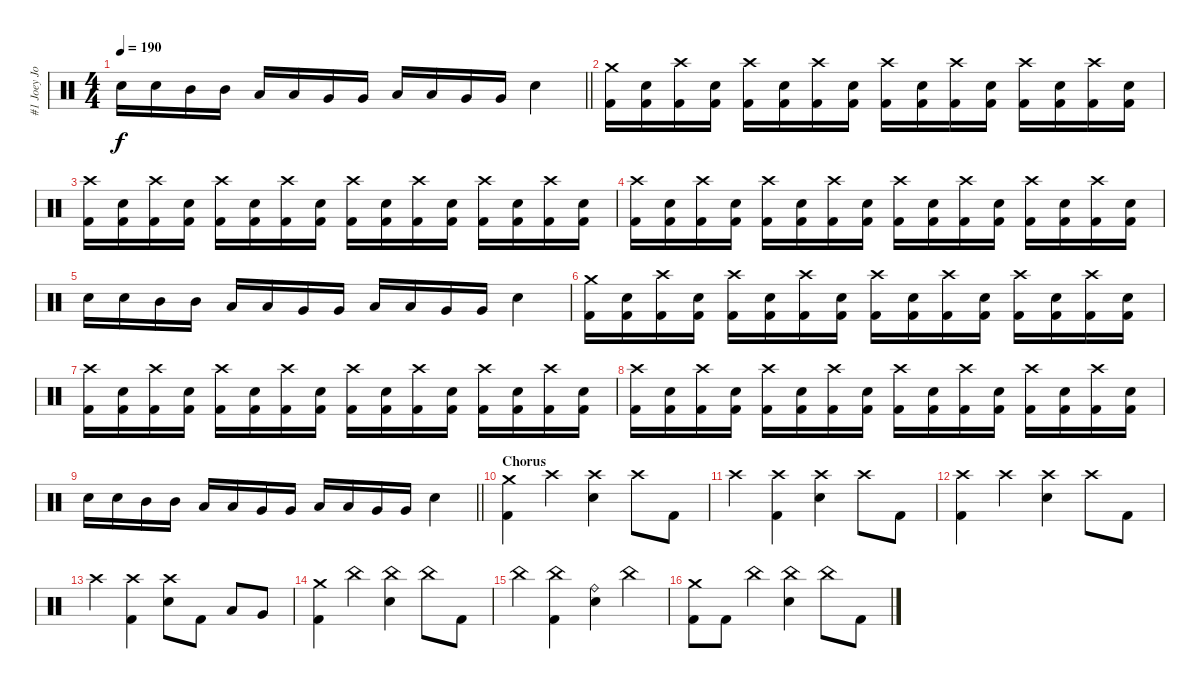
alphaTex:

\track ("#1 Joey Jordison" "#1 Joey Jo") {instrument percussion}
\staff {score}
\articulation defaults
\ts (4 4)
\tempo 190
\clef neutral
\barLineRight lightlight
\ks c "Electric Snare (hit)".16{dy f} "Electric Snare (hit)".16 "Mid Tom (hit)".16 "Mid Tom (hit)".16 "Low Tom (hit)".16 "Low Tom (hit)".16 "Very Low Tom (hit)".16 "Very Low Tom (hit)".16 "Low Floor Tom (hit)".16 "Low Floor Tom (hit)".16 "Very Low Tom (hit)".16 "Very Low Tom (hit)".16 "Electric Snare (hit)".4
|
("Crash medium (hit)" "Kick (hit) 2").16 ("Electric Snare (hit)" "Kick (hit) 2").16 ("Crash high (hit)" "Kick (hit) 2").16 ("Electric Snare (hit)" "Kick (hit) 2").16 ("Crash high (hit)" "Kick (hit) 2").16 ("Electric Snare (hit)" "Kick (hit) 2").16 ("Crash high (hit)" "Kick (hit) 2").16 ("Electric Snare (hit)" "Kick (hit) 2").16 ("Crash high (hit)" "Kick (hit) 2").16 ("Electric Snare (hit)" "Kick (hit) 2").16 ("Crash high (hit)" "Kick (hit) 2").16 ("Electric Snare (hit)" "Kick (hit) 2").16 ("Crash high (hit)" "Kick (hit) 2").16 ("Electric Snare (hit)" "Kick (hit) 2").16 ("Crash high (hit)" "Kick (hit) 2").16 ("Electric Snare (hit)" "Kick (hit) 2").16 |
("Crash high (hit)" "Kick (hit) 2").16 ("Electric Snare (hit)" "Kick (hit) 2").16 ("Crash high (hit)" "Kick (hit) 2").16 ("Electric Snare (hit)" "Kick (hit) 2").16 ("Crash high (hit)" "Kick (hit) 2").16 ("Electric Snare (hit)" "Kick (hit) 2").16 ("Crash high (hit)" "Kick (hit) 2").16 ("Electric Snare (hit)" "Kick (hit) 2").16 ("Crash high (hit)" "Kick (hit) 2").16 ("Electric Snare (hit)" "Kick (hit) 2").16 ("Crash high (hit)" "Kick (hit) 2").16 ("Electric Snare (hit)" "Kick (hit) 2").16 ("Crash high (hit)" "Kick (hit) 2").16 ("Electric Snare (hit)" "Kick (hit) 2").16 ("Crash high (hit)" "Kick (hit) 2").16 ("Electric Snare (hit)" "Kick (hit) 2").16 |
("Crash high (hit)" "Kick (hit) 2").16 ("Electric Snare (hit)" "Kick (hit) 2").16 ("Crash high (hit)" "Kick (hit) 2").16 ("Electric Snare (hit)" "Kick (hit) 2").16 ("Crash high (hit)" "Kick (hit) 2").16 ("Electric Snare (hit)" "Kick (hit) 2").16 ("Crash high (hit)" "Kick (hit) 2").16 ("Electric Snare (hit)" "Kick (hit) 2").16 ("Crash high (hit)" "Kick (hit) 2").16 ("Electric Snare (hit)" "Kick (hit) 2").16 ("Crash high (hit)" "Kick (hit) 2").16 ("Electric Snare (hit)" "Kick (hit) 2").16 ("Crash high (hit)" "Kick (hit) 2").16 ("Electric Snare (hit)" "Kick (hit) 2").16 ("Crash high (hit)" "Kick (hit) 2").16 ("Electric Snare (hit)" "Kick (hit) 2").16 |
"Electric Snare (hit)".16 "Electric Snare (hit)".16 "Mid Tom (hit)".16 "Mid Tom (hit)".16 "Low Tom (hit)".16 "Low Tom (hit)".16 "Very Low Tom (hit)".16 "Very Low Tom (hit)".16 "Low Floor Tom (hit)".16 "Low Floor Tom (hit)".16 "Very Low Tom (hit)".16 "Very Low Tom (hit)".16 "Electric Snare (hit)".4 |
("Crash medium (hit)" "Kick (hit) 2").16 ("Electric Snare (hit)" "Kick (hit) 2").16 ("Crash high (hit)" "Kick (hit) 2").16 ("Electric Snare (hit)" "Kick (hit) 2").16 ("Crash high (hit)" "Kick (hit) 2").16 ("Electric Snare (hit)" "Kick (hit) 2").16 ("Crash high (hit)" "Kick (hit) 2").16 ("Electric Snare (hit)" "Kick (hit) 2").16 ("Crash high (hit)" "Kick (hit) 2").16 ("Electric Snare (hit)" "Kick (hit) 2").16 ("Crash high (hit)" "Kick (hit) 2").16 ("Electric Snare (hit)" "Kick (hit) 2").16 ("Crash high (hit)" "Kick (hit) 2").16 ("Electric Snare (hit)" "Kick (hit) 2").16 ("Crash high (hit)" "Kick (hit) 2").16 ("Electric Snare (hit)" "Kick (hit) 2").16 |
("Crash high (hit)" "Kick (hit) 2").16 ("Electric Snare (hit)" "Kick (hit) 2").16 ("Crash high (hit)" "Kick (hit) 2").16 ("Electric Snare (hit)" "Kick (hit) 2").16 ("Crash high (hit)" "Kick (hit) 2").16 ("Electric Snare (hit)" "Kick (hit) 2").16 ("Crash high (hit)" "Kick (hit) 2").16 ("Electric Snare (hit)" "Kick (hit) 2").16 ("Crash high (hit)" "Kick (hit) 2").16 ("Electric Snare (hit)" "Kick (hit) 2").16 ("Crash high (hit)" "Kick (hit) 2").16 ("Electric Snare (hit)" "Kick (hit) 2").16 ("Crash high (hit)" "Kick (hit) 2").16 ("Electric Snare (hit)" "Kick (hit) 2").16 ("Crash high (hit)" "Kick (hit) 2").16 ("Electric Snare (hit)" "Kick (hit) 2").16 |
("Crash high (hit)" "Kick (hit) 2").16 ("Electric Snare (hit)" "Kick (hit) 2").16 ("Crash high (hit)" "Kick (hit) 2").16 ("Electric Snare (hit)" "Kick (hit) 2").16 ("Crash high (hit)" "Kick (hit) 2").16 ("Electric Snare (hit)" "Kick (hit) 2").16 ("Crash high (hit)" "Kick (hit) 2").16 ("Electric Snare (hit)" "Kick (hit) 2").16 ("Crash high (hit)" "Kick (hit) 2").16 ("Electric Snare (hit)" "Kick (hit) 2").16 ("Crash high (hit)" "Kick (hit) 2").16 ("Electric Snare (hit)" "Kick (hit) 2").16 ("Crash high (hit)" "Kick (hit) 2").16 ("Electric Snare (hit)" "Kick (hit) 2").16 ("Crash high (hit)" "Kick (hit) 2").16 ("Electric Snare (hit)" "Kick (hit) 2").16 |
\barLineRight lightlight "Electric Snare (hit)".16 "Electric Snare (hit)".16 "Mid Tom (hit)".16 "Mid Tom (hit)".16 "Low Tom (hit)".16 "Low Tom (hit)".16 "Very Low Tom (hit)".16 "Very Low Tom (hit)".16 "Low Floor Tom (hit)".16 "Low Floor Tom (hit)".16 "Very Low Tom (hit)".16 "Very Low Tom (hit)".16 "Electric Snare (hit)".4
|
\section ("" "Chorus")
("Crash medium (hit)" "Kick (hit) 2").4 "Crash high (hit)".4 ("Crash high (hit)" "Electric Snare (hit)").4 "Crash high (hit)".8 "Kick (hit) 2".8 |
"Crash high (hit)".4 ("Crash high (hit)" "Kick (hit) 2").4 ("Crash high (hit)" "Electric Snare (hit)").4 "Crash high (hit)".8 "Kick (hit) 2".8 |
("Crash high (hit)" "Kick (hit) 2").4 "Crash high (hit)".4 ("Crash high (hit)" "Electric Snare (hit)").4 "Crash high (hit)".8 "Kick (hit) 2".8 |
"Crash high (hit)".4 ("Crash high (hit)" "Kick (hit) 2").4 ("Crash high (hit)" "Electric Snare (hit)").8 "Kick (hit) 2".8 "Low Tom (hit)".8 "Very Low Tom (hit)".8 |
("Crash medium (hit)" "Kick (hit) 2").4 "China (hit)".4 ("China (hit)" "Electric Snare (hit)").4 "China (hit)".8 "Kick (hit) 2".8 |
"China (hit)".4 ("China (hit)" "Kick (hit) 2").4 ("Ride (bell)" "Electric Snare (hit)").4 "China (hit)".4 |
("Crash medium (hit)" "Kick (hit) 2").8 "Kick (hit) 2".8 "China (hit)".4 ("China (hit)" "Electric Snare (hit)").4 "China (hit)".8 "Kick (hit) 2".8
